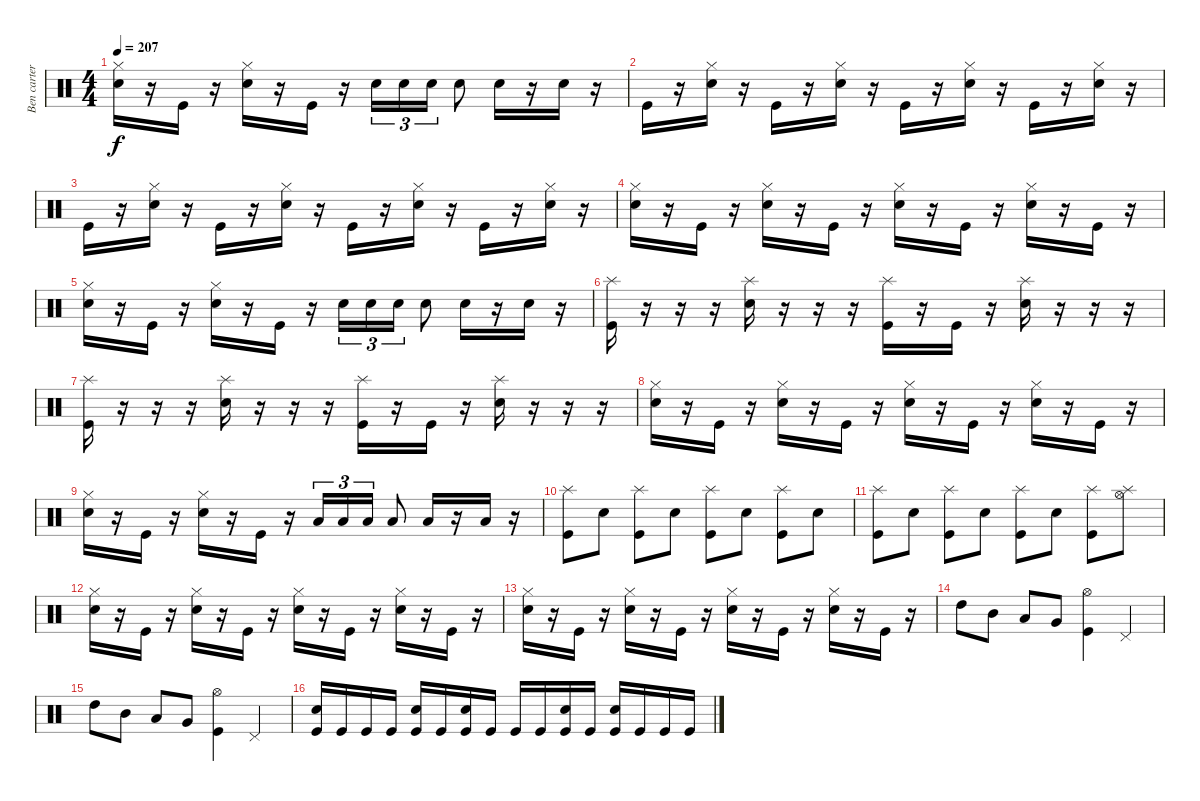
\track ("Ben carter" "Ben carter") {instrument percussion}
\staff {score}
\articulation defaults
\ts (4 4)
\tempo 207
\clef neutral
\ks c
("Hi-Hat (closed)" "Electric Snare (hit)").16{dy f} r.16 "Kick (hit)".16 r.16 ("Hi-Hat (closed)" "Electric Snare (hit)").16 r.16 "Kick (hit)".16 r.16 "Snare (hit) 2".16{tu (3 2)} "Snare (hit) 2".16{tu (3 2)} "Snare (hit) 2".16{tu (3 2)} "Snare (hit) 2".8 "Snare (hit) 2".16 r.16 "Snare (hit) 2".16 r.16 |
"Kick (hit)".16 r.16 ("Hi-Hat (closed)" "Electric Snare (hit)").16 r.16 "Kick (hit)".16 r.16 ("Hi-Hat (closed)" "Electric Snare (hit)").16 r.16 "Kick (hit)".16 r.16 ("Hi-Hat (closed)" "Electric Snare (hit)").16 r.16 "Kick (hit)".16 r.16 ("Hi-Hat (closed)" "Electric Snare (hit)").16 r.16 |
"Kick (hit)".16 r.16 ("Hi-Hat (closed)" "Electric Snare (hit)").16 r.16 "Kick (hit)".16 r.16 ("Hi-Hat (closed)" "Electric Snare (hit)").16 r.16 "Kick (hit)".16 r.16 ("Hi-Hat (closed)" "Electric Snare (hit)").16 r.16 "Kick (hit)".16 r.16 ("Hi-Hat (closed)" "Electric Snare (hit)").16 r.16 |
("Hi-Hat (closed)" "Electric Snare (hit)").16 r.16 "Kick (hit)".16 r.16 ("Hi-Hat (closed)" "Electric Snare (hit)").16 r.16 "Kick (hit)".16 r.16 ("Hi-Hat (closed)" "Electric Snare (hit)").16 r.16 "Kick (hit)".16 r.16 ("Hi-Hat (closed)" "Electric Snare (hit)").16 r.16 "Kick (hit)".16 r.16 |
("Hi-Hat (closed)" "Electric Snare (hit)").16 r.16 "Kick (hit)".16 r.16 ("Hi-Hat (closed)" "Electric Snare (hit)").16 r.16 "Kick (hit)".16 r.16 "Snare (hit) 2".16{tu (3 2)} "Snare (hit) 2".16{tu (3 2)} "Snare (hit) 2".16{tu (3 2)} "Snare (hit) 2".8 "Snare (hit) 2".16 r.16 "Snare (hit) 2".16 r.16 |
("Splash (hit)" "Kick (hit)").16 r.16 r.16 r.16 ("Splash (hit)" "Snare (hit) 2").16 r.16 r.16 r.16 ("Splash (hit)" "Kick (hit)").16 r.16 "Kick (hit)".16 r.16 ("Splash (hit)" "Snare (hit) 2").16 r.16 r.16 r.16 |
("Splash (hit)" "Kick (hit)").16 r.16 r.16 r.16 ("Splash (hit)" "Snare (hit) 2").16 r.16 r.16 r.16 ("Splash (hit)" "Kick (hit)").16 r.16 "Kick (hit)".16 r.16 ("Splash (hit)" "Snare (hit) 2").16 r.16 r.16 r.16 |
("Hi-Hat (closed)" "Electric Snare (hit)").16 r.16 "Kick (hit)".16 r.16 ("Hi-Hat (closed)" "Electric Snare (hit)").16 r.16 "Kick (hit)".16 r.16 ("Hi-Hat (closed)" "Electric Snare (hit)").16 r.16 "Kick (hit)".16 r.16 ("Hi-Hat (closed)" "Electric Snare (hit)").16 r.16 "Kick (hit)".16 r.16 |
("Hi-Hat (closed)" "Electric Snare (hit)").16 r.16 "Kick (hit)".16 r.16 ("Hi-Hat (closed)" "Electric Snare (hit)").16 r.16 "Kick (hit)".16 r.16 "Low Tom (hit)".16{tu (3 2)} "Low Tom (hit)".16{tu (3 2)} "Low Tom (hit)".16{tu (3 2)} "Low Tom (hit)".8 "Low Floor Tom (hit)".16 r.16 "Low Floor Tom (hit)".16 r.16 |
("Splash (hit)" "Kick (hit)").8 "Snare (hit) 2".8 ("Splash (hit)" "Kick (hit)").8 "Snare (hit) 2".8 ("Splash (hit)" "Kick (hit)").8 "Snare (hit) 2".8 ("Splash (hit)" "Kick (hit)").8 "Snare (hit) 2".8 |
("Splash (hit)" "Kick (hit)").8 "Snare (hit) 2".8 ("Splash (hit)" "Kick (hit)").8 "Snare (hit) 2".8 ("Splash (hit)" "Kick (hit)").8 "Snare (hit) 2".8 ("Splash (hit)" "Kick (hit)").8 ("Splash (hit)" "Hi-Hat (open)").8 |
("Hi-Hat (closed)" "Electric Snare (hit)").16 r.16 "Kick (hit)".16 r.16 ("Hi-Hat (closed)" "Electric Snare (hit)").16 r.16 "Kick (hit)".16 r.16 ("Hi-Hat (closed)" "Electric Snare (hit)").16 r.16 "Kick (hit)".16 r.16 ("Hi-Hat (closed)" "Electric Snare (hit)").16 r.16 "Kick (hit)".16 r.16 |
("Hi-Hat (closed)" "Electric Snare (hit)").16 r.16 "Kick (hit)".16 r.16 ("Hi-Hat (closed)" "Electric Snare (hit)").16 r.16 "Kick (hit)".16 r.16 ("Hi-Hat (closed)" "Electric Snare (hit)").16 r.16 "Kick (hit)".16 r.16 ("Hi-Hat (closed)" "Electric Snare (hit)").16 r.16 "Kick (hit)".16 r.16 |
"High Tom (hit)".8 "Mid Tom (hit)".8 "Low Tom (hit)".8 "Very Low Tom (hit)".8 ("Kick (hit)" "Hi-Hat (open)").4 "Pedal Hi-Hat (hit)".4 |
"High Tom (hit)".8 "Mid Tom (hit)".8 "Low Tom (hit)".8 "Very Low Tom (hit)".8 ("Kick (hit)" "Hi-Hat (open)").4 "Pedal Hi-Hat (hit)".4 |
("Snare (hit) 2" "Kick (hit)").16 "Kick (hit)".16 "Kick (hit)".16 "Kick (hit)".16 ("Snare (hit) 2" "Kick (hit)").16 "Kick (hit)".16 ("Snare (hit) 2" "Kick (hit)").16 "Kick (hit)".16 "Kick (hit)".16 "Kick (hit)".16 ("Snare (hit) 2" "Kick (hit)").16 "Kick (hit)".16 ("Snare (hit) 2" "Kick (hit)").16 "Kick (hit)".16 "Kick (hit)".16 "Kick (hit)".16
